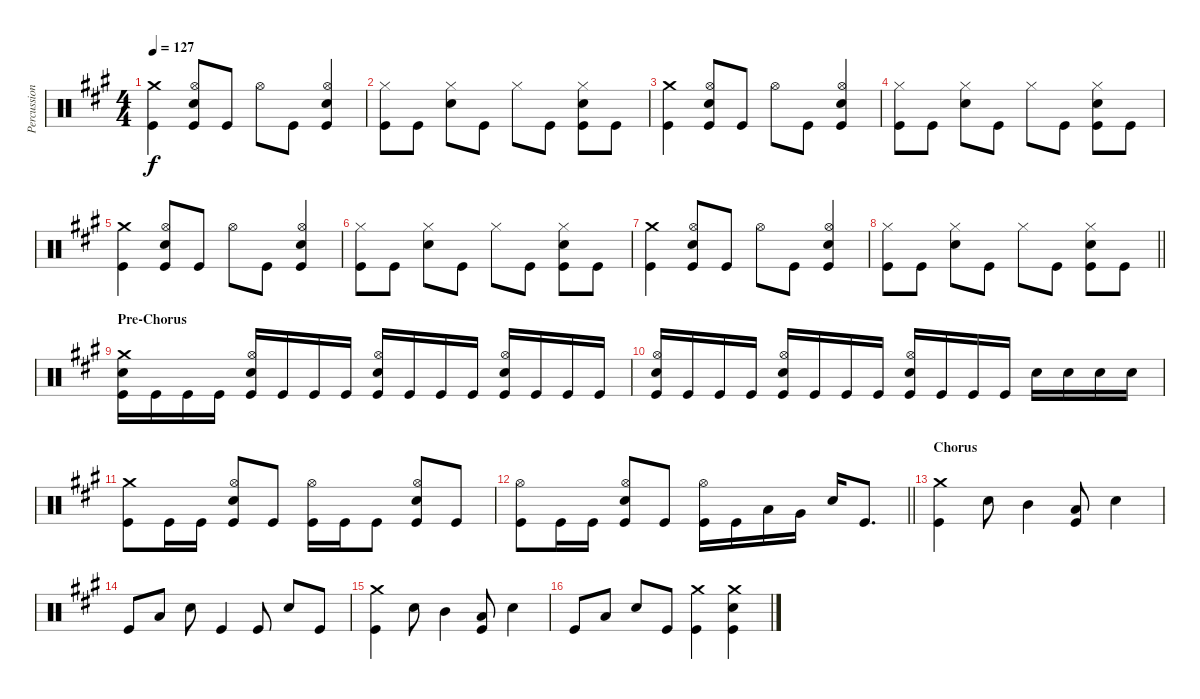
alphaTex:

\track ("Percussion" "Percussion") {instrument percussion}
\staff {score}
\articulation defaults
\ts (4 4)
\tempo 127
\clef neutral
\ks a
("Crash medium (hit)" "Kick (hit)").4{dy f} ("Hi-Hat (open)" "Electric Snare (hit)" "Kick (hit)").8 "Kick (hit)".8 "Hi-Hat (open)".8 "Kick (hit)".8 ("Hi-Hat (open)" "Electric Snare (hit)" "Kick (hit)").4 |
("Hi-Hat (closed)" "Kick (hit)").8 "Kick (hit)".8 ("Hi-Hat (closed)" "Electric Snare (hit)").8 "Kick (hit)".8 "Hi-Hat (closed)".8 "Kick (hit)".8 ("Hi-Hat (closed)" "Electric Snare (hit)" "Kick (hit)").8 "Kick (hit)".8 |
("Crash medium (hit)" "Kick (hit)").4 ("Hi-Hat (open)" "Electric Snare (hit)" "Kick (hit)").8 "Kick (hit)".8 "Hi-Hat (open)".8 "Kick (hit)".8 ("Hi-Hat (open)" "Electric Snare (hit)" "Kick (hit)").4 |
("Hi-Hat (closed)" "Kick (hit)").8 "Kick (hit)".8 ("Hi-Hat (closed)" "Electric Snare (hit)").8 "Kick (hit)".8 "Hi-Hat (closed)".8 "Kick (hit)".8 ("Hi-Hat (closed)" "Electric Snare (hit)" "Kick (hit)").8 "Kick (hit)".8 |
("Crash medium (hit)" "Kick (hit)").4 ("Hi-Hat (open)" "Electric Snare (hit)" "Kick (hit)").8 "Kick (hit)".8 "Hi-Hat (open)".8 "Kick (hit)".8 ("Hi-Hat (open)" "Electric Snare (hit)" "Kick (hit)").4 |
("Hi-Hat (closed)" "Kick (hit)").8 "Kick (hit)".8 ("Hi-Hat (closed)" "Electric Snare (hit)").8 "Kick (hit)".8 "Hi-Hat (closed)".8 "Kick (hit)".8 ("Hi-Hat (closed)" "Electric Snare (hit)" "Kick (hit)").8 "Kick (hit)".8 |
("Crash medium (hit)" "Kick (hit)").4 ("Hi-Hat (open)" "Electric Snare (hit)" "Kick (hit)").8 "Kick (hit)".8 "Hi-Hat (open)".8 "Kick (hit)".8 ("Hi-Hat (open)" "Electric Snare (hit)" "Kick (hit)").4 |
\barLineRight lightlight
("Hi-Hat (closed)" "Kick (hit)").8 "Kick (hit)".8 ("Hi-Hat (closed)" "Electric Snare (hit)").8 "Kick (hit)".8 "Hi-Hat (closed)".8 "Kick (hit)".8 ("Hi-Hat (closed)" "Electric Snare (hit)" "Kick (hit)").8 "Kick (hit)".8 |
\section ("" "Pre-Chorus")
("Crash medium (hit)" "Electric Snare (hit)" "Kick (hit)").16 "Kick (hit)".16 "Kick (hit)".16 "Kick (hit)".16 ("Hi-Hat (open)" "Electric Snare (hit)" "Kick (hit)").16 "Kick (hit)".16 "Kick (hit)".16 "Kick (hit)".16 ("Hi-Hat (open)" "Electric Snare (hit)" "Kick (hit)").16 "Kick (hit)".16 "Kick (hit)".16 "Kick (hit)".16 ("Hi-Hat (open)" "Electric Snare (hit)" "Kick (hit)").16 "Kick (hit)".16 "Kick (hit)".16 "Kick (hit)".16 |
("Hi-Hat (open)" "Electric Snare (hit)" "Kick (hit)").16 "Kick (hit)".16 "Kick (hit)".16 "Kick (hit)".16 ("Hi-Hat (open)" "Electric Snare (hit)" "Kick (hit)").16 "Kick (hit)".16 "Kick (hit)".16 "Kick (hit)".16 ("Hi-Hat (open)" "Electric Snare (hit)" "Kick (hit)").16 "Kick (hit)".16 "Kick (hit)".16 "Kick (hit)".16 "Electric Snare (hit)".16 "Electric Snare (hit)".16 "Electric Snare (hit)".16 "Electric Snare (hit)".16 |
("Crash medium (hit)" "Kick (hit)").8 "Kick (hit)".16 "Kick (hit)".16 ("Hi-Hat (open)" "Electric Snare (hit)" "Kick (hit)").8 "Kick (hit)".8 ("Hi-Hat (open)" "Kick (hit)").16 "Kick (hit)".16 "Kick (hit)".8 ("Hi-Hat (open)" "Electric Snare (hit)" "Kick (hit)").8 "Kick (hit)".8 |
\barLineRight lightlight
("Hi-Hat (open)" "Kick (hit)").8 "Kick (hit)".16 "Kick (hit)".16 ("Hi-Hat (open)" "Electric Snare (hit)" "Kick (hit)").8 "Kick (hit)".8 ("Hi-Hat (open)" "Kick (hit)").16 "Kick (hit)".16 "Low Tom (hit)".16 "Very Low Tom (hit)".16 "Electric Snare (hit)".16 "Kick (hit)".8{d} |
\section ("" "Chorus")
("Crash medium (hit)" "Kick (hit)").4 "Electric Snare (hit)".8 "Mid Tom (hit)".4 ("Low Tom (hit)" "Kick (hit)").8 "Electric Snare (hit)".4 |
"Kick (hit)".8 "Low Floor Tom (hit)".8 "Electric Snare (hit)".8 "Kick (hit)".4 "Kick (hit)".8 "Electric Snare (hit)".8 "Kick (hit)".8 |
("Crash medium (hit)" "Kick (hit)").4 "Electric Snare (hit)".8 "Mid Tom (hit)".4 ("Low Tom (hit)" "Kick (hit)").8 "Electric Snare (hit)".4 |
"Kick (hit)".8 "Low Floor Tom (hit)".8 "Electric Snare (hit)".8 "Kick (hit)".8 ("Crash medium (hit)" "Kick (hit)").4 ("Crash medium (hit)" "Electric Snare (hit)" "Kick (hit)").4
